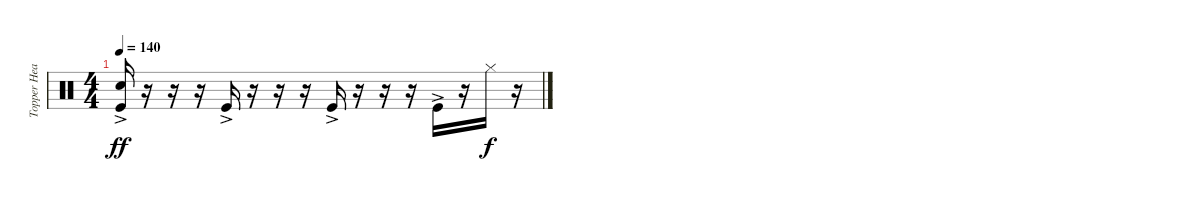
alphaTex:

\track ("Topper Headon" "Topper Hea") {instrument percussion}
\staff {score}
\articulation defaults
\ts (4 4)
\tempo 140
\clef neutral
\ks c
("Snare (hit) 2" "Kick (hit)"{ac}).16{dy ff} r.16 r.16 r.16 "Kick (hit)"{ac}.16 r.16 r.16 r.16 "Kick (hit)"{ac}.16 r.16 r.16 r.16 "Kick (hit)"{ac}.16 r.16 "Hi-Hat (closed)".16{dy f} r.16
